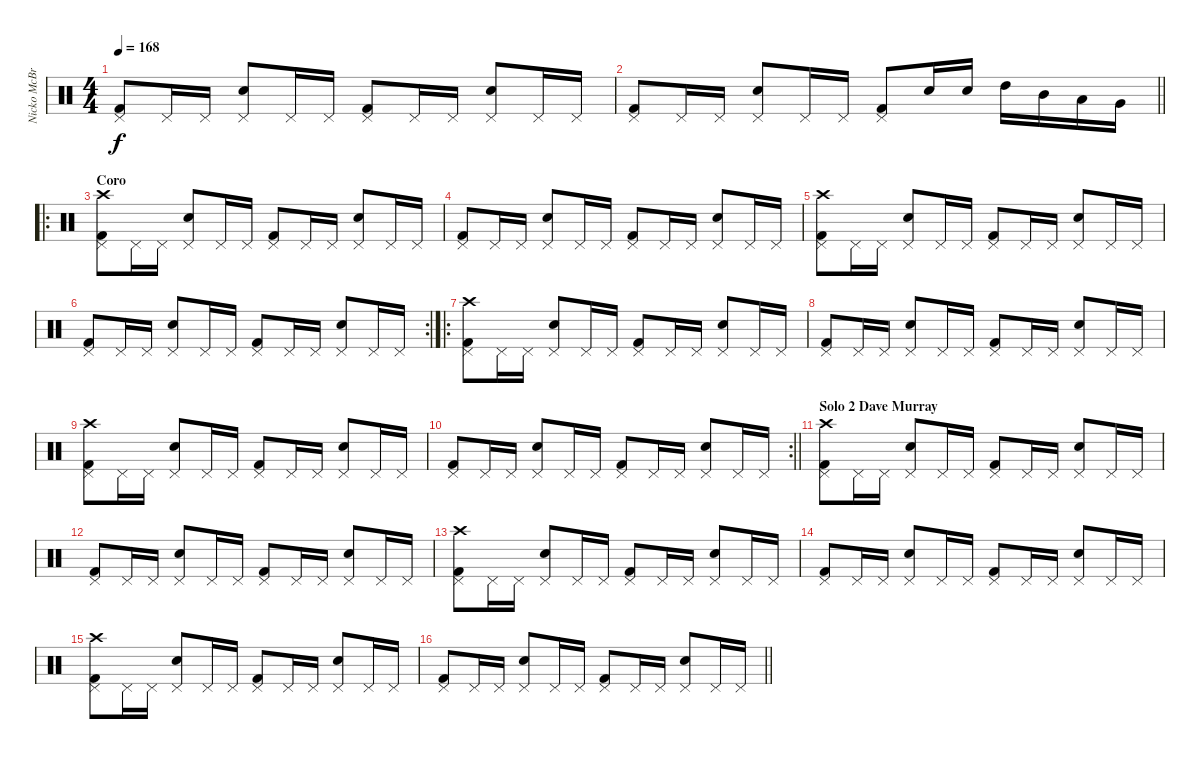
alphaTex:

\track ("Nicko McBrain" "Nicko McBr") {instrument percussion}
\staff {score}
\articulation defaults
\ts (4 4)
\tempo 168
\clef neutral
\ks c
("Kick (hit) 2" "Pedal Hi-Hat (hit)").8{dy f} "Pedal Hi-Hat (hit)".16 "Pedal Hi-Hat (hit)".16 ("Snare (hit) 2" "Pedal Hi-Hat (hit)").8 "Pedal Hi-Hat (hit)".16 "Pedal Hi-Hat (hit)".16 ("Kick (hit) 2" "Pedal Hi-Hat (hit)").8 "Pedal Hi-Hat (hit)".16 "Pedal Hi-Hat (hit)".16 ("Snare (hit) 2" "Pedal Hi-Hat (hit)").8 "Pedal Hi-Hat (hit)".16 "Pedal Hi-Hat (hit)".16 |
\barLineRight lightlight
("Kick (hit) 2" "Pedal Hi-Hat (hit)").8 "Pedal Hi-Hat (hit)".16 "Pedal Hi-Hat (hit)".16 ("Snare (hit) 2" "Pedal Hi-Hat (hit)").8 "Pedal Hi-Hat (hit)".16 "Pedal Hi-Hat (hit)".16 ("Kick (hit) 2" "Pedal Hi-Hat (hit)").8 "Snare (hit) 2".16 "Snare (hit) 2".16 "High Tom (hit)".16 "Mid Tom (hit)".16 "Low Tom (hit)".16 "Very Low Tom (hit)".16 |
\ro
\section ("" "Coro")
("Kick (hit) 2" "Pedal Hi-Hat (hit)" "Crash high (hit)").8 "Pedal Hi-Hat (hit)".16 "Pedal Hi-Hat (hit)".16 ("Snare (hit) 2" "Pedal Hi-Hat (hit)").8 "Pedal Hi-Hat (hit)".16 "Pedal Hi-Hat (hit)".16 ("Kick (hit) 2" "Pedal Hi-Hat (hit)").8 "Pedal Hi-Hat (hit)".16 "Pedal Hi-Hat (hit)".16 ("Snare (hit) 2" "Pedal Hi-Hat (hit)").8 "Pedal Hi-Hat (hit)".16 "Pedal Hi-Hat (hit)".16 |
("Kick (hit) 2" "Pedal Hi-Hat (hit)").8 "Pedal Hi-Hat (hit)".16 "Pedal Hi-Hat (hit)".16 ("Snare (hit) 2" "Pedal Hi-Hat (hit)").8 "Pedal Hi-Hat (hit)".16 "Pedal Hi-Hat (hit)".16 ("Kick (hit) 2" "Pedal Hi-Hat (hit)").8 "Pedal Hi-Hat (hit)".16 "Pedal Hi-Hat (hit)".16 ("Snare (hit) 2" "Pedal Hi-Hat (hit)").8 "Pedal Hi-Hat (hit)".16 "Pedal Hi-Hat (hit)".16 |
("Kick (hit) 2" "Pedal Hi-Hat (hit)" "Crash high (hit)").8 "Pedal Hi-Hat (hit)".16 "Pedal Hi-Hat (hit)".16 ("Snare (hit) 2" "Pedal Hi-Hat (hit)").8 "Pedal Hi-Hat (hit)".16 "Pedal Hi-Hat (hit)".16 ("Kick (hit) 2" "Pedal Hi-Hat (hit)").8 "Pedal Hi-Hat (hit)".16 "Pedal Hi-Hat (hit)".16 ("Snare (hit) 2" "Pedal Hi-Hat (hit)").8 "Pedal Hi-Hat (hit)".16 "Pedal Hi-Hat (hit)".16 |
\rc 2
("Kick (hit) 2" "Pedal Hi-Hat (hit)").8 "Pedal Hi-Hat (hit)".16 "Pedal Hi-Hat (hit)".16 ("Snare (hit) 2" "Pedal Hi-Hat (hit)").8 "Pedal Hi-Hat (hit)".16 "Pedal Hi-Hat (hit)".16 ("Kick (hit) 2" "Pedal Hi-Hat (hit)").8 "Pedal Hi-Hat (hit)".16 "Pedal Hi-Hat (hit)".16 ("Snare (hit) 2" "Pedal Hi-Hat (hit)").8 "Pedal Hi-Hat (hit)".16 "Pedal Hi-Hat (hit)".16 |
\ro
("Kick (hit) 2" "Pedal Hi-Hat (hit)" "Crash high (hit)").8 "Pedal Hi-Hat (hit)".16 "Pedal Hi-Hat (hit)".16 ("Snare (hit) 2" "Pedal Hi-Hat (hit)").8 "Pedal Hi-Hat (hit)".16 "Pedal Hi-Hat (hit)".16 ("Kick (hit) 2" "Pedal Hi-Hat (hit)").8 "Pedal Hi-Hat (hit)".16 "Pedal Hi-Hat (hit)".16 ("Snare (hit) 2" "Pedal Hi-Hat (hit)").8 "Pedal Hi-Hat (hit)".16 "Pedal Hi-Hat (hit)".16 |
("Kick (hit) 2" "Pedal Hi-Hat (hit)").8 "Pedal Hi-Hat (hit)".16 "Pedal Hi-Hat (hit)".16 ("Snare (hit) 2" "Pedal Hi-Hat (hit)").8 "Pedal Hi-Hat (hit)".16 "Pedal Hi-Hat (hit)".16 ("Kick (hit) 2" "Pedal Hi-Hat (hit)").8 "Pedal Hi-Hat (hit)".16 "Pedal Hi-Hat (hit)".16 ("Snare (hit) 2" "Pedal Hi-Hat (hit)").8 "Pedal Hi-Hat (hit)".16 "Pedal Hi-Hat (hit)".16 |
("Kick (hit) 2" "Pedal Hi-Hat (hit)" "Crash high (hit)").8 "Pedal Hi-Hat (hit)".16 "Pedal Hi-Hat (hit)".16 ("Snare (hit) 2" "Pedal Hi-Hat (hit)").8 "Pedal Hi-Hat (hit)".16 "Pedal Hi-Hat (hit)".16 ("Kick (hit) 2" "Pedal Hi-Hat (hit)").8 "Pedal Hi-Hat (hit)".16 "Pedal Hi-Hat (hit)".16 ("Snare (hit) 2" "Pedal Hi-Hat (hit)").8 "Pedal Hi-Hat (hit)".16 "Pedal Hi-Hat (hit)".16 |
\rc 2
\barLineRight lightlight
("Kick (hit) 2" "Pedal Hi-Hat (hit)").8 "Pedal Hi-Hat (hit)".16 "Pedal Hi-Hat (hit)".16 ("Snare (hit) 2" "Pedal Hi-Hat (hit)").8 "Pedal Hi-Hat (hit)".16 "Pedal Hi-Hat (hit)".16 ("Kick (hit) 2" "Pedal Hi-Hat (hit)").8 "Pedal Hi-Hat (hit)".16 "Pedal Hi-Hat (hit)".16 ("Snare (hit) 2" "Pedal Hi-Hat (hit)").8 "Pedal Hi-Hat (hit)".16 "Pedal Hi-Hat (hit)".16 |
\section ("" "Solo 2 Dave Murray")
("Kick (hit) 2" "Pedal Hi-Hat (hit)" "Crash high (hit)").8 "Pedal Hi-Hat (hit)".16 "Pedal Hi-Hat (hit)".16 ("Snare (hit) 2" "Pedal Hi-Hat (hit)").8 "Pedal Hi-Hat (hit)".16 "Pedal Hi-Hat (hit)".16 ("Kick (hit) 2" "Pedal Hi-Hat (hit)").8 "Pedal Hi-Hat (hit)".16 "Pedal Hi-Hat (hit)".16 ("Snare (hit) 2" "Pedal Hi-Hat (hit)").8 "Pedal Hi-Hat (hit)".16 "Pedal Hi-Hat (hit)".16 |
("Kick (hit) 2" "Pedal Hi-Hat (hit)").8 "Pedal Hi-Hat (hit)".16 "Pedal Hi-Hat (hit)".16 ("Snare (hit) 2" "Pedal Hi-Hat (hit)").8 "Pedal Hi-Hat (hit)".16 "Pedal Hi-Hat (hit)".16 ("Kick (hit) 2" "Pedal Hi-Hat (hit)").8 "Pedal Hi-Hat (hit)".16 "Pedal Hi-Hat (hit)".16 ("Snare (hit) 2" "Pedal Hi-Hat (hit)").8 "Pedal Hi-Hat (hit)".16 "Pedal Hi-Hat (hit)".16 |
("Kick (hit) 2" "Pedal Hi-Hat (hit)" "Crash high (hit)").8 "Pedal Hi-Hat (hit)".16 "Pedal Hi-Hat (hit)".16 ("Snare (hit) 2" "Pedal Hi-Hat (hit)").8 "Pedal Hi-Hat (hit)".16 "Pedal Hi-Hat (hit)".16 ("Kick (hit) 2" "Pedal Hi-Hat (hit)").8 "Pedal Hi-Hat (hit)".16 "Pedal Hi-Hat (hit)".16 ("Snare (hit) 2" "Pedal Hi-Hat (hit)").8 "Pedal Hi-Hat (hit)".16 "Pedal Hi-Hat (hit)".16 |
("Kick (hit) 2" "Pedal Hi-Hat (hit)").8 "Pedal Hi-Hat (hit)".16 "Pedal Hi-Hat (hit)".16 ("Snare (hit) 2" "Pedal Hi-Hat (hit)").8 "Pedal Hi-Hat (hit)".16 "Pedal Hi-Hat (hit)".16 ("Kick (hit) 2" "Pedal Hi-Hat (hit)").8 "Pedal Hi-Hat (hit)".16 "Pedal Hi-Hat (hit)".16 ("Snare (hit) 2" "Pedal Hi-Hat (hit)").8 "Pedal Hi-Hat (hit)".16 "Pedal Hi-Hat (hit)".16 |
("Kick (hit) 2" "Pedal Hi-Hat (hit)" "Crash high (hit)").8 "Pedal Hi-Hat (hit)".16 "Pedal Hi-Hat (hit)".16 ("Snare (hit) 2" "Pedal Hi-Hat (hit)").8 "Pedal Hi-Hat (hit)".16 "Pedal Hi-Hat (hit)".16 ("Kick (hit) 2" "Pedal Hi-Hat (hit)").8 "Pedal Hi-Hat (hit)".16 "Pedal Hi-Hat (hit)".16 ("Snare (hit) 2" "Pedal Hi-Hat (hit)").8 "Pedal Hi-Hat (hit)".16 "Pedal Hi-Hat (hit)".16 |
\barLineRight lightlight
("Kick (hit) 2" "Pedal Hi-Hat (hit)").8 "Pedal Hi-Hat (hit)".16 "Pedal Hi-Hat (hit)".16 ("Snare (hit) 2" "Pedal Hi-Hat (hit)").8 "Pedal Hi-Hat (hit)".16 "Pedal Hi-Hat (hit)".16 ("Kick (hit) 2" "Pedal Hi-Hat (hit)").8 "Pedal Hi-Hat (hit)".16 "Pedal Hi-Hat (hit)".16 ("Snare (hit) 2" "Pedal Hi-Hat (hit)").8 "Pedal Hi-Hat (hit)".16 "Pedal Hi-Hat (hit)".16
